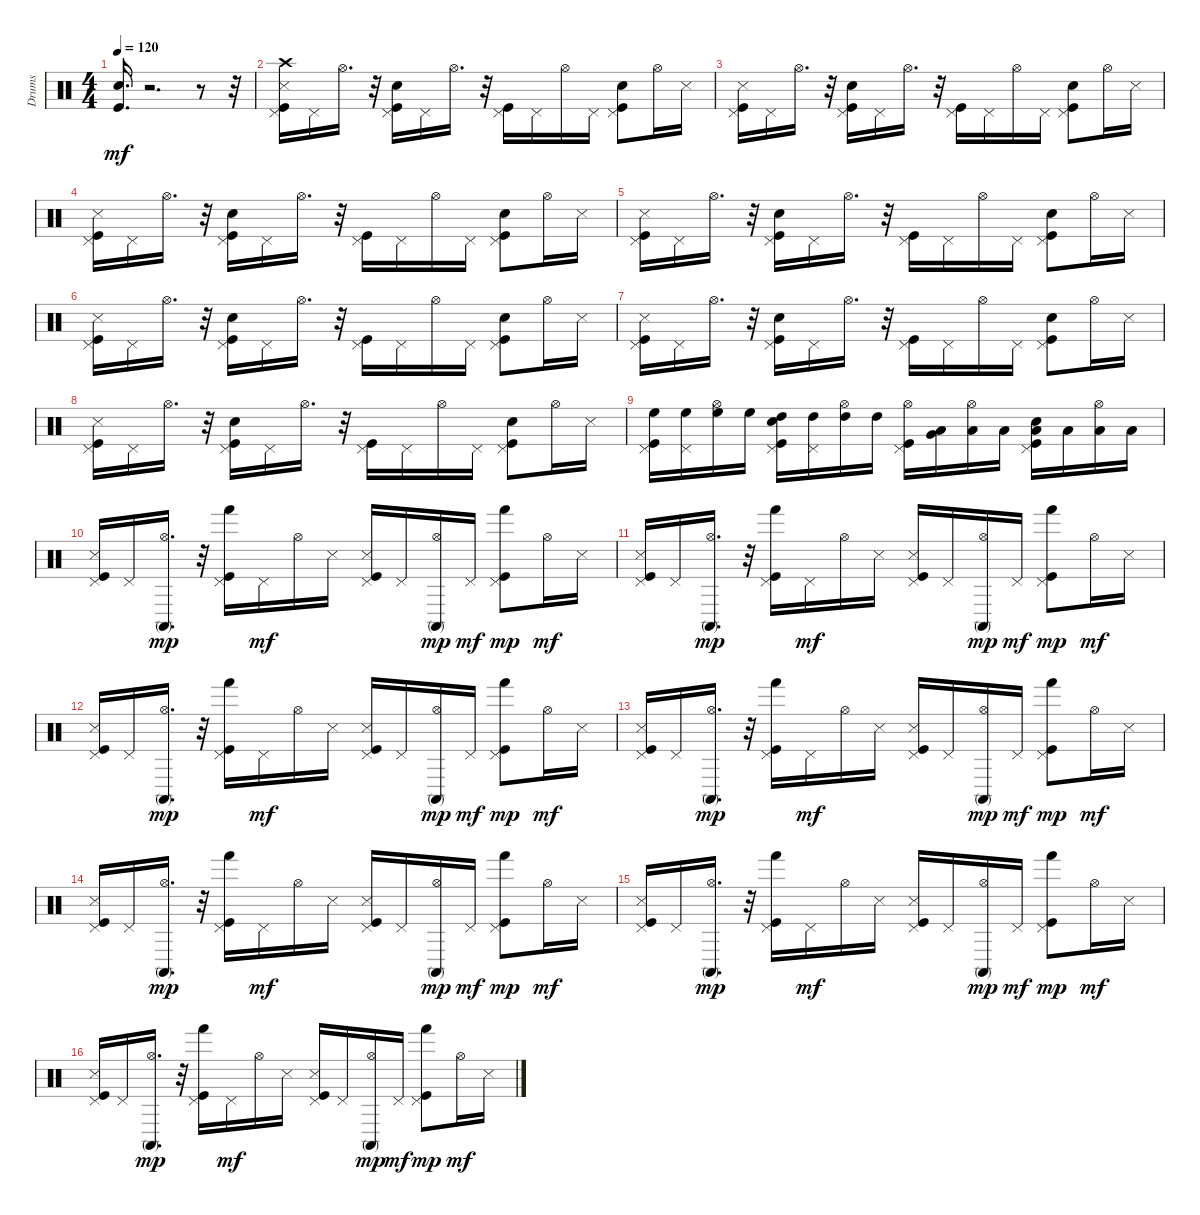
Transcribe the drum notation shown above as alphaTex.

\track ("Drums" "Drums") {instrument percussion}
\staff {score}
\articulation defaults
\ts (4 4)
\tempo 120
\clef neutral
\ks c
("Snare (hit) 2" "Kick (hit)").16{d dy mf} r.2{d} r.8 r.32 |
("Crash high (hit)" "Snare (side stick) 3" "Pedal Hi-Hat (hit)" "Kick (hit)").16 "Pedal Hi-Hat (hit)".16 "Hi-Hat (open)".16{d} r.32 ("Pedal Hi-Hat (hit)" "Snare (hit) 2" "Kick (hit)").16 "Pedal Hi-Hat (hit)".16 "Hi-Hat (open)".16{d} r.32 ("Pedal Hi-Hat (hit)" "Kick (hit)").16 "Pedal Hi-Hat (hit)".16 "Hi-Hat (open)".16 "Pedal Hi-Hat (hit)".16 ("Pedal Hi-Hat (hit)" "Snare (hit) 2" "Kick (hit)").8 "Hi-Hat (open)".16 "Snare (side stick) 3".16 |
("Snare (side stick) 3" "Pedal Hi-Hat (hit)" "Kick (hit)").16 "Pedal Hi-Hat (hit)".16 "Hi-Hat (open)".16{d} r.32 ("Pedal Hi-Hat (hit)" "Snare (hit) 2" "Kick (hit)").16 "Pedal Hi-Hat (hit)".16 "Hi-Hat (open)".16{d} r.32 ("Pedal Hi-Hat (hit)" "Kick (hit)").16 "Pedal Hi-Hat (hit)".16 "Hi-Hat (open)".16 "Pedal Hi-Hat (hit)".16 ("Pedal Hi-Hat (hit)" "Snare (hit) 2" "Kick (hit)").8 "Hi-Hat (open)".16 "Snare (side stick) 3".16 |
("Snare (side stick) 3" "Pedal Hi-Hat (hit)" "Kick (hit)").16 "Pedal Hi-Hat (hit)".16 "Hi-Hat (open)".16{d} r.32 ("Pedal Hi-Hat (hit)" "Kick (hit)" "Snare (hit) 2").16 "Pedal Hi-Hat (hit)".16 "Hi-Hat (open)".16{d} r.32 ("Pedal Hi-Hat (hit)" "Kick (hit)").16 "Pedal Hi-Hat (hit)".16 "Hi-Hat (open)".16 "Pedal Hi-Hat (hit)".16 ("Pedal Hi-Hat (hit)" "Kick (hit)" "Snare (hit) 2").8 "Hi-Hat (open)".16 "Snare (side stick) 3".16 |
("Snare (side stick) 3" "Pedal Hi-Hat (hit)" "Kick (hit)").16 "Pedal Hi-Hat (hit)".16 "Hi-Hat (open)".16{d} r.32 ("Pedal Hi-Hat (hit)" "Kick (hit)" "Snare (hit) 2").16 "Pedal Hi-Hat (hit)".16 "Hi-Hat (open)".16{d} r.32 ("Pedal Hi-Hat (hit)" "Kick (hit)").16 "Pedal Hi-Hat (hit)".16 "Hi-Hat (open)".16 "Pedal Hi-Hat (hit)".16 ("Pedal Hi-Hat (hit)" "Kick (hit)" "Snare (hit) 2").8 "Hi-Hat (open)".16 "Snare (side stick) 3".16 |
("Snare (side stick) 3" "Pedal Hi-Hat (hit)" "Kick (hit)").16 "Pedal Hi-Hat (hit)".16 "Hi-Hat (open)".16{d} r.32 ("Pedal Hi-Hat (hit)" "Kick (hit)" "Snare (hit) 2").16 "Pedal Hi-Hat (hit)".16 "Hi-Hat (open)".16{d} r.32 ("Pedal Hi-Hat (hit)" "Kick (hit)").16 "Pedal Hi-Hat (hit)".16 "Hi-Hat (open)".16 "Pedal Hi-Hat (hit)".16 ("Pedal Hi-Hat (hit)" "Kick (hit)" "Snare (hit) 2").8 "Hi-Hat (open)".16 "Snare (side stick) 3".16 |
("Snare (side stick) 3" "Pedal Hi-Hat (hit)" "Kick (hit)").16 "Pedal Hi-Hat (hit)".16 "Hi-Hat (open)".16{d} r.32 ("Pedal Hi-Hat (hit)" "Kick (hit)" "Snare (hit) 2").16 "Pedal Hi-Hat (hit)".16 "Hi-Hat (open)".16{d} r.32 ("Pedal Hi-Hat (hit)" "Kick (hit)").16 "Pedal Hi-Hat (hit)".16 "Hi-Hat (open)".16 "Pedal Hi-Hat (hit)".16 ("Pedal Hi-Hat (hit)" "Kick (hit)" "Snare (hit) 2").8 "Hi-Hat (open)".16 "Snare (side stick) 3".16 |
("Snare (side stick) 3" "Pedal Hi-Hat (hit)" "Kick (hit)").16 "Pedal Hi-Hat (hit)".16 "Hi-Hat (open)".16{d} r.32 ("Pedal Hi-Hat (hit)" "Kick (hit)" "Snare (hit) 2").16 "Pedal Hi-Hat (hit)".16 "Hi-Hat (open)".16{d} r.32 ("Pedal Hi-Hat (hit)" "Kick (hit)").16 "Pedal Hi-Hat (hit)".16 "Hi-Hat (open)".16 "Pedal Hi-Hat (hit)".16 ("Pedal Hi-Hat (hit)" "Kick (hit)" "Snare (hit) 2").8 "Hi-Hat (open)".16 "Snare (side stick) 3".16 |
("High Floor Tom (hit)" "Pedal Hi-Hat (hit)" "Kick (hit)").16 ("High Floor Tom (hit)" "Pedal Hi-Hat (hit)").16 ("High Floor Tom (hit)" "Hi-Hat (open)").16 "High Floor Tom (hit)".16 ("High Tom (hit)" "Pedal Hi-Hat (hit)" "Kick (hit)" "Snare (hit) 2").16 ("High Tom (hit)" "Pedal Hi-Hat (hit)").16 ("Hi-Hat (open)" "High Tom (hit)").16 "High Tom (hit)".16 ("Pedal Hi-Hat (hit)" "Hi-Hat (open)" "Kick (hit)").16 ("Very Low Tom (hit)" "Low Tom (hit)").16 ("Hi-Hat (open)" "Low Tom (hit)").16 "Low Tom (hit)".16 ("Low Floor Tom (hit)" "Pedal Hi-Hat (hit)" "Kick (hit)" "Snare (hit) 2").16 "Low Floor Tom (hit)".16 ("Low Floor Tom (hit)" "Hi-Hat (open)").16 "Low Floor Tom (hit)".16 |
("Pedal Hi-Hat (hit)" "Snare (side stick) 3" "Kick (hit)").16 "Pedal Hi-Hat (hit)".16 ("Hi-Hat (open)" "Conga high (mute)").16{d dy mp} r.32 ("Pedal Hi-Hat (hit)" "Kick (hit)" "Hand (hit)").16 "Pedal Hi-Hat (hit)".16{dy mf} "Hi-Hat (open)".16 "Snare (side stick) 3".16 ("Snare (side stick) 3" "Pedal Hi-Hat (hit)" "Kick (hit)").16 "Pedal Hi-Hat (hit)".16 ("Hi-Hat (open)" "Conga high (mute)").16{dy mp} "Pedal Hi-Hat (hit)".16{dy mf} ("Pedal Hi-Hat (hit)" "Kick (hit)" "Hand (hit)").8{dy mp} "Hi-Hat (open)".16{dy mf} "Snare (side stick) 3".16 |
("Kick (hit)" "Snare (side stick) 3" "Pedal Hi-Hat (hit)").16 "Pedal Hi-Hat (hit)".16 ("Hi-Hat (open)" "Conga high (mute)").16{d dy mp} r.32 ("Kick (hit)" "Pedal Hi-Hat (hit)" "Hand (hit)").16 "Pedal Hi-Hat (hit)".16{dy mf} "Hi-Hat (open)".16 "Snare (side stick) 3".16 ("Kick (hit)" "Pedal Hi-Hat (hit)" "Snare (side stick) 3").16 "Pedal Hi-Hat (hit)".16 ("Hi-Hat (open)" "Conga high (mute)").16{dy mp} "Pedal Hi-Hat (hit)".16{dy mf} ("Kick (hit)" "Pedal Hi-Hat (hit)" "Hand (hit)").8{dy mp} "Hi-Hat (open)".16{dy mf} "Snare (side stick) 3".16 |
("Kick (hit)" "Snare (side stick) 3" "Pedal Hi-Hat (hit)").16 "Pedal Hi-Hat (hit)".16 ("Hi-Hat (open)" "Conga high (mute)").16{d dy mp} r.32 ("Kick (hit)" "Pedal Hi-Hat (hit)" "Hand (hit)").16 "Pedal Hi-Hat (hit)".16{dy mf} "Hi-Hat (open)".16 "Snare (side stick) 3".16 ("Kick (hit)" "Pedal Hi-Hat (hit)" "Snare (side stick) 3").16 "Pedal Hi-Hat (hit)".16 ("Hi-Hat (open)" "Conga high (mute)").16{dy mp} "Pedal Hi-Hat (hit)".16{dy mf} ("Kick (hit)" "Pedal Hi-Hat (hit)" "Hand (hit)").8{dy mp} "Hi-Hat (open)".16{dy mf} "Snare (side stick) 3".16 |
("Kick (hit)" "Snare (side stick) 3" "Pedal Hi-Hat (hit)").16 "Pedal Hi-Hat (hit)".16 ("Hi-Hat (open)" "Conga high (mute)").16{d dy mp} r.32 ("Kick (hit)" "Pedal Hi-Hat (hit)" "Hand (hit)").16 "Pedal Hi-Hat (hit)".16{dy mf} "Hi-Hat (open)".16 "Snare (side stick) 3".16 ("Kick (hit)" "Pedal Hi-Hat (hit)" "Snare (side stick) 3").16 "Pedal Hi-Hat (hit)".16 ("Hi-Hat (open)" "Conga high (mute)").16{dy mp} "Pedal Hi-Hat (hit)".16{dy mf} ("Kick (hit)" "Pedal Hi-Hat (hit)" "Hand (hit)").8{dy mp} "Hi-Hat (open)".16{dy mf} "Snare (side stick) 3".16 |
("Kick (hit)" "Snare (side stick) 3" "Pedal Hi-Hat (hit)").16 "Pedal Hi-Hat (hit)".16 ("Hi-Hat (open)" "Conga high (mute)").16{d dy mp} r.32 ("Kick (hit)" "Pedal Hi-Hat (hit)" "Hand (hit)").16 "Pedal Hi-Hat (hit)".16{dy mf} "Hi-Hat (open)".16 "Snare (side stick) 3".16 ("Kick (hit)" "Pedal Hi-Hat (hit)" "Snare (side stick) 3").16 "Pedal Hi-Hat (hit)".16 ("Hi-Hat (open)" "Conga high (mute)").16{dy mp} "Pedal Hi-Hat (hit)".16{dy mf} ("Kick (hit)" "Pedal Hi-Hat (hit)" "Hand (hit)").8{dy mp} "Hi-Hat (open)".16{dy mf} "Snare (side stick) 3".16 |
("Kick (hit)" "Snare (side stick) 3" "Pedal Hi-Hat (hit)").16 "Pedal Hi-Hat (hit)".16 ("Hi-Hat (open)" "Conga high (mute)").16{d dy mp} r.32 ("Kick (hit)" "Pedal Hi-Hat (hit)" "Hand (hit)").16 "Pedal Hi-Hat (hit)".16{dy mf} "Hi-Hat (open)".16 "Snare (side stick) 3".16 ("Kick (hit)" "Pedal Hi-Hat (hit)" "Snare (side stick) 3").16 "Pedal Hi-Hat (hit)".16 ("Hi-Hat (open)" "Conga high (mute)").16{dy mp} "Pedal Hi-Hat (hit)".16{dy mf} ("Kick (hit)" "Pedal Hi-Hat (hit)" "Hand (hit)").8{dy mp} "Hi-Hat (open)".16{dy mf} "Snare (side stick) 3".16 |
("Kick (hit)" "Snare (side stick) 3" "Pedal Hi-Hat (hit)").16 "Pedal Hi-Hat (hit)".16 ("Hi-Hat (open)" "Conga high (mute)").16{d dy mp} r.32 ("Kick (hit)" "Pedal Hi-Hat (hit)" "Hand (hit)").16 "Pedal Hi-Hat (hit)".16{dy mf} "Hi-Hat (open)".16 "Snare (side stick) 3".16 ("Kick (hit)" "Pedal Hi-Hat (hit)" "Snare (side stick) 3").16 "Pedal Hi-Hat (hit)".16 ("Hi-Hat (open)" "Conga high (mute)").16{dy mp} "Pedal Hi-Hat (hit)".16{dy mf} ("Kick (hit)" "Pedal Hi-Hat (hit)" "Hand (hit)").8{dy mp} "Hi-Hat (open)".16{dy mf} "Snare (side stick) 3".16
